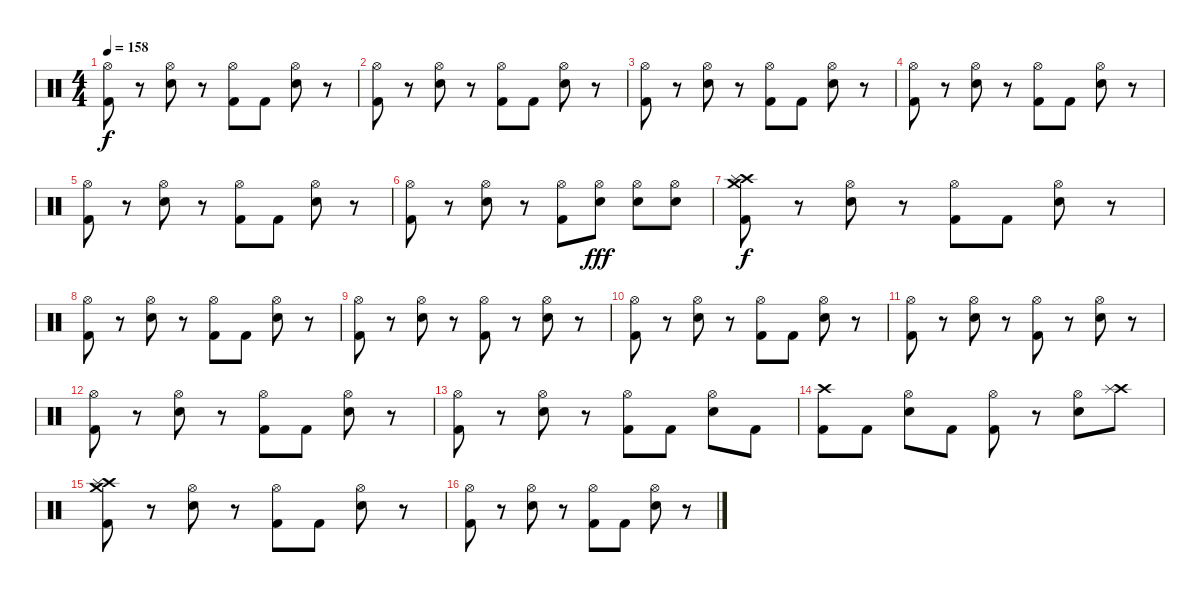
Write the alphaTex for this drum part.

\track "" {instrument percussion}
\staff {score}
\articulation defaults
\ts (4 4)
\tempo 158
\clef neutral
\ks c
("Hi-Hat (open)" "Kick (hit) 2").8{dy f} r.8 ("Hi-Hat (open)" "Electric Snare (hit)").8 r.8 ("Hi-Hat (open)" "Kick (hit) 2").8 "Kick (hit) 2".8 ("Hi-Hat (open)" "Electric Snare (hit)").8 r.8 |
("Hi-Hat (open)" "Kick (hit) 2").8 r.8 ("Hi-Hat (open)" "Electric Snare (hit)").8 r.8 ("Hi-Hat (open)" "Kick (hit) 2").8 "Kick (hit) 2".8 ("Hi-Hat (open)" "Electric Snare (hit)").8 r.8 |
("Hi-Hat (open)" "Kick (hit) 2").8 r.8 ("Hi-Hat (open)" "Electric Snare (hit)").8 r.8 ("Hi-Hat (open)" "Kick (hit) 2").8 "Kick (hit) 2".8 ("Hi-Hat (open)" "Electric Snare (hit)").8 r.8 |
("Hi-Hat (open)" "Kick (hit) 2").8 r.8 ("Hi-Hat (open)" "Electric Snare (hit)").8 r.8 ("Hi-Hat (open)" "Kick (hit) 2").8 "Kick (hit) 2".8 ("Hi-Hat (open)" "Electric Snare (hit)").8 r.8 |
("Hi-Hat (open)" "Kick (hit) 2").8 r.8 ("Hi-Hat (open)" "Electric Snare (hit)").8 r.8 ("Hi-Hat (open)" "Kick (hit) 2").8 "Kick (hit) 2".8 ("Hi-Hat (open)" "Electric Snare (hit)").8 r.8 |
("Hi-Hat (open)" "Kick (hit) 2").8 r.8 ("Hi-Hat (open)" "Electric Snare (hit)").8 r.8 ("Hi-Hat (open)" "Kick (hit) 2").8 ("Hi-Hat (open)" "Electric Snare (hit)").8{dy fff} ("Hi-Hat (open)" "Electric Snare (hit)").8 ("Hi-Hat (open)" "Electric Snare (hit)").8 |
("Crash medium (hit)" "Crash high (hit)" "Splash (hit)" "Kick (hit) 2").8{dy f} r.8 ("Hi-Hat (open)" "Electric Snare (hit)").8 r.8 ("Hi-Hat (open)" "Kick (hit) 2").8 "Kick (hit) 2".8 ("Hi-Hat (open)" "Electric Snare (hit)").8 r.8 |
("Hi-Hat (open)" "Kick (hit) 2").8 r.8 ("Hi-Hat (open)" "Electric Snare (hit)").8 r.8 ("Hi-Hat (open)" "Kick (hit) 2").8 "Kick (hit) 2".8 ("Hi-Hat (open)" "Electric Snare (hit)").8 r.8 |
("Hi-Hat (open)" "Kick (hit) 2").8 r.8 ("Hi-Hat (open)" "Electric Snare (hit)").8 r.8 ("Hi-Hat (open)" "Kick (hit) 2").8 r.8 ("Hi-Hat (open)" "Electric Snare (hit)").8 r.8 |
("Hi-Hat (open)" "Kick (hit) 2").8 r.8 ("Hi-Hat (open)" "Electric Snare (hit)").8 r.8 ("Hi-Hat (open)" "Kick (hit) 2").8 "Kick (hit) 2".8 ("Hi-Hat (open)" "Electric Snare (hit)").8 r.8 |
("Hi-Hat (open)" "Kick (hit) 2").8 r.8 ("Hi-Hat (open)" "Electric Snare (hit)").8 r.8 ("Hi-Hat (open)" "Kick (hit) 2").8 r.8 ("Hi-Hat (open)" "Electric Snare (hit)").8 r.8 |
("Hi-Hat (open)" "Kick (hit) 2").8 r.8 ("Hi-Hat (open)" "Electric Snare (hit)").8 r.8 ("Hi-Hat (open)" "Kick (hit) 2").8 "Kick (hit) 2".8 ("Hi-Hat (open)" "Electric Snare (hit)").8 r.8 |
("Hi-Hat (open)" "Kick (hit) 2").8 r.8 ("Hi-Hat (open)" "Electric Snare (hit)").8 r.8 ("Hi-Hat (open)" "Kick (hit) 2").8 "Kick (hit) 2".8 ("Hi-Hat (open)" "Electric Snare (hit)").8 "Kick (hit) 2".8 |
("Crash high (hit)" "Kick (hit) 2").8 "Kick (hit) 2".8 ("Hi-Hat (open)" "Electric Snare (hit)").8 "Kick (hit) 2".8 ("Hi-Hat (open)" "Kick (hit) 2").8 r.8 ("Hi-Hat (open)" "Electric Snare (hit)").8 ("Crash high (hit)" "Splash (hit)").8 |
("Crash medium (hit)" "Crash high (hit)" "Splash (hit)" "Kick (hit) 2").8 r.8 ("Hi-Hat (open)" "Electric Snare (hit)").8 r.8 ("Hi-Hat (open)" "Kick (hit) 2").8 "Kick (hit) 2".8 ("Hi-Hat (open)" "Electric Snare (hit)").8 r.8 |
("Hi-Hat (open)" "Kick (hit) 2").8 r.8 ("Hi-Hat (open)" "Electric Snare (hit)").8 r.8 ("Hi-Hat (open)" "Kick (hit) 2").8 "Kick (hit) 2".8 ("Hi-Hat (open)" "Electric Snare (hit)").8 r.8
